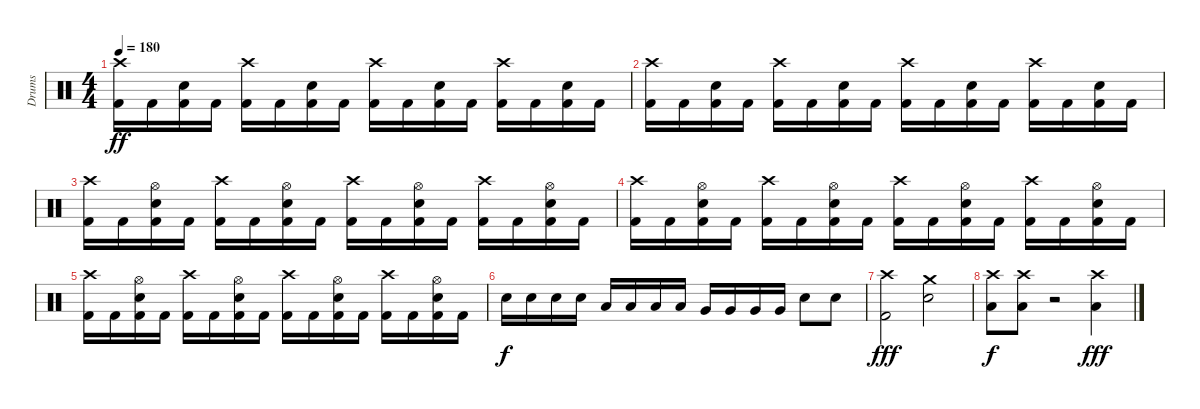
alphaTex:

\track ("Drums" "Drums") {instrument percussion}
\staff {score}
\articulation defaults
\ts (4 4)
\tempo 180
\clef neutral
\ks c
("Crash high (hit)" "Kick (hit) 2").16{dy ff} "Kick (hit) 2".16 ("Snare (hit) 2" "Kick (hit) 2").16 "Kick (hit) 2".16 ("Crash high (hit)" "Kick (hit) 2").16 "Kick (hit) 2".16 ("Snare (hit) 2" "Kick (hit) 2").16 "Kick (hit) 2".16 ("Crash high (hit)" "Kick (hit) 2").16 "Kick (hit) 2".16 ("Snare (hit) 2" "Kick (hit) 2").16 "Kick (hit) 2".16 ("Crash high (hit)" "Kick (hit) 2").16 "Kick (hit) 2".16 ("Snare (hit) 2" "Kick (hit) 2").16 "Kick (hit) 2".16 |
("Crash high (hit)" "Kick (hit) 2").16 "Kick (hit) 2".16 ("Snare (hit) 2" "Kick (hit) 2").16 "Kick (hit) 2".16 ("Crash high (hit)" "Kick (hit) 2").16 "Kick (hit) 2".16 ("Snare (hit) 2" "Kick (hit) 2").16 "Kick (hit) 2".16 ("Crash high (hit)" "Kick (hit) 2").16 "Kick (hit) 2".16 ("Snare (hit) 2" "Kick (hit) 2").16 "Kick (hit) 2".16 ("Crash high (hit)" "Kick (hit) 2").16 "Kick (hit) 2".16 ("Snare (hit) 2" "Kick (hit) 2").16 "Kick (hit) 2".16 |
("Crash high (hit)" "Kick (hit) 2").16 "Kick (hit) 2".16 ("Hi-Hat (open)" "Snare (hit) 2" "Kick (hit) 2").16 "Kick (hit) 2".16 ("Crash high (hit)" "Kick (hit) 2").16 "Kick (hit) 2".16 ("Hi-Hat (open)" "Snare (hit) 2" "Kick (hit) 2").16 "Kick (hit) 2".16 ("Crash high (hit)" "Kick (hit) 2").16 "Kick (hit) 2".16 ("Hi-Hat (open)" "Snare (hit) 2" "Kick (hit) 2").16 "Kick (hit) 2".16 ("Crash high (hit)" "Kick (hit) 2").16 "Kick (hit) 2".16 ("Hi-Hat (open)" "Snare (hit) 2" "Kick (hit) 2").16 "Kick (hit) 2".16 |
("Crash high (hit)" "Kick (hit) 2").16 "Kick (hit) 2".16 ("Hi-Hat (open)" "Snare (hit) 2" "Kick (hit) 2").16 "Kick (hit) 2".16 ("Crash high (hit)" "Kick (hit) 2").16 "Kick (hit) 2".16 ("Hi-Hat (open)" "Snare (hit) 2" "Kick (hit) 2").16 "Kick (hit) 2".16 ("Crash high (hit)" "Kick (hit) 2").16 "Kick (hit) 2".16 ("Hi-Hat (open)" "Snare (hit) 2" "Kick (hit) 2").16 "Kick (hit) 2".16 ("Crash high (hit)" "Kick (hit) 2").16 "Kick (hit) 2".16 ("Hi-Hat (open)" "Snare (hit) 2" "Kick (hit) 2").16 "Kick (hit) 2".16 |
("Crash high (hit)" "Kick (hit) 2").16 "Kick (hit) 2".16 ("Hi-Hat (open)" "Snare (hit) 2" "Kick (hit) 2").16 "Kick (hit) 2".16 ("Crash high (hit)" "Kick (hit) 2").16 "Kick (hit) 2".16 ("Hi-Hat (open)" "Snare (hit) 2" "Kick (hit) 2").16 "Kick (hit) 2".16 ("Crash high (hit)" "Kick (hit) 2").16 "Kick (hit) 2".16 ("Hi-Hat (open)" "Snare (hit) 2" "Kick (hit) 2").16 "Kick (hit) 2".16 ("Crash high (hit)" "Kick (hit) 2").16 "Kick (hit) 2".16 ("Hi-Hat (open)" "Snare (hit) 2" "Kick (hit) 2").16 "Kick (hit) 2".16 |
"Snare (hit) 2".16{dy f} "Snare (hit) 2".16 "Snare (hit) 2".16 "Snare (hit) 2".16 "Low Tom (hit)".16 "Low Tom (hit)".16 "Low Tom (hit)".16 "Low Tom (hit)".16 "Very Low Tom (hit)".16 "Very Low Tom (hit)".16 "Very Low Tom (hit)".16 "Very Low Tom (hit)".16 "Snare (hit) 2".8 "Snare (hit) 2".8 |
("Kick (hit) 2" "Crash high (hit)").2{dy fff} ("Snare (hit) 2" "Crash medium (hit)").2 |
("Low Floor Tom (hit)" "Crash high (hit)").8{dy f} ("Low Floor Tom (hit)" "Crash high (hit)").8 r.2 ("Low Floor Tom (hit)" "Crash high (hit)").4{dy fff}
